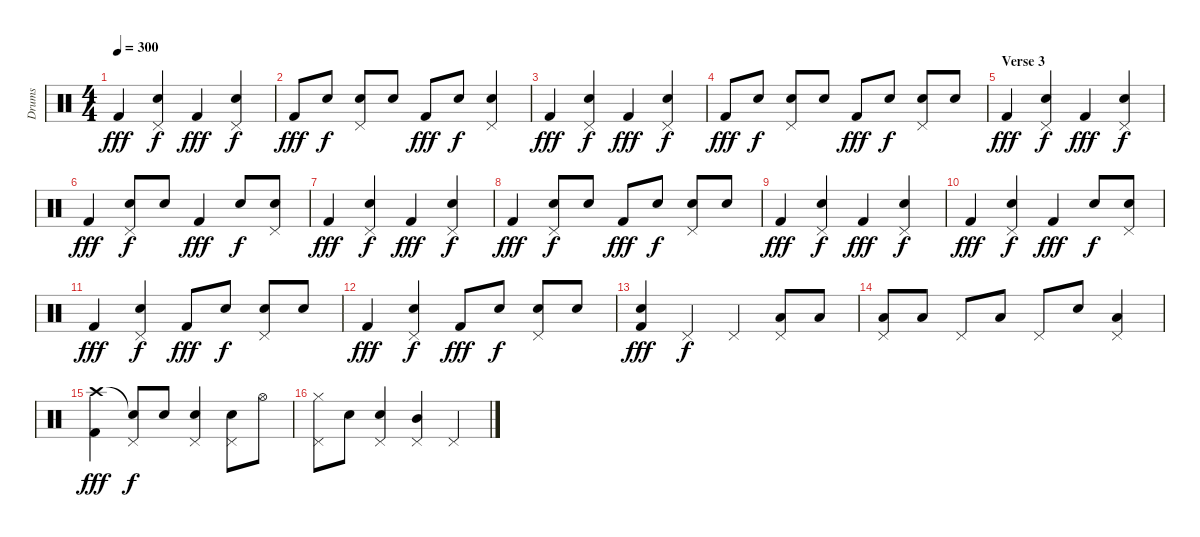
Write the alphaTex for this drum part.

\track ("Drums" "Drums") {instrument percussion}
\staff {score}
\articulation defaults
\ts (4 4)
\tempo 300
\clef neutral
\ks c "Kick (hit) 2".4{dy fff}
("Snare (hit) 2" "Pedal Hi-Hat (hit)").4{dy f} "Kick (hit) 2".4{dy fff} ("Snare (hit) 2" "Pedal Hi-Hat (hit)").4{dy f} |
"Kick (hit) 2".8{dy fff} "Snare (hit) 2".8{dy f} ("Snare (hit) 2" "Pedal Hi-Hat (hit)").8 "Snare (hit) 2".8 "Kick (hit) 2".8{dy fff} "Snare (hit) 2".8{dy f} ("Snare (hit) 2" "Pedal Hi-Hat (hit)").4 |
"Kick (hit) 2".4{dy fff} ("Snare (hit) 2" "Pedal Hi-Hat (hit)").4{dy f} "Kick (hit) 2".4{dy fff} ("Snare (hit) 2" "Pedal Hi-Hat (hit)").4{dy f} |
"Kick (hit) 2".8{dy fff} "Snare (hit) 2".8{dy f} ("Snare (hit) 2" "Pedal Hi-Hat (hit)").8 "Snare (hit) 2".8 "Kick (hit) 2".8{dy fff} "Snare (hit) 2".8{dy f} ("Snare (hit) 2" "Pedal Hi-Hat (hit)").8 "Snare (hit) 2".8 |
\section ("" "Verse 3")
"Kick (hit) 2".4{dy fff} ("Snare (hit) 2" "Pedal Hi-Hat (hit)").4{dy f} "Kick (hit) 2".4{dy fff} ("Snare (hit) 2" "Pedal Hi-Hat (hit)").4{dy f} |
"Kick (hit) 2".4{dy fff} ("Snare (hit) 2" "Pedal Hi-Hat (hit)").8{dy f} "Snare (hit) 2".8 "Kick (hit) 2".4{dy fff} "Snare (hit) 2".8{dy f} ("Snare (hit) 2" "Pedal Hi-Hat (hit)").8 |
"Kick (hit) 2".4{dy fff} ("Snare (hit) 2" "Pedal Hi-Hat (hit)").4{dy f} "Kick (hit) 2".4{dy fff} ("Snare (hit) 2" "Pedal Hi-Hat (hit)").4{dy f} |
"Kick (hit) 2".4{dy fff} ("Snare (hit) 2" "Pedal Hi-Hat (hit)").8{dy f} "Snare (hit) 2".8 "Kick (hit) 2".8{dy fff} "Snare (hit) 2".8{dy f} ("Snare (hit) 2" "Pedal Hi-Hat (hit)").8 "Snare (hit) 2".8 |
"Kick (hit) 2".4{dy fff} ("Snare (hit) 2" "Pedal Hi-Hat (hit)").4{dy f} "Kick (hit) 2".4{dy fff} ("Snare (hit) 2" "Pedal Hi-Hat (hit)").4{dy f} |
"Kick (hit) 2".4{dy fff} ("Snare (hit) 2" "Pedal Hi-Hat (hit)").4{dy f} "Kick (hit) 2".4{dy fff} "Snare (hit) 2".8{dy f} ("Snare (hit) 2" "Pedal Hi-Hat (hit)").8 |
"Kick (hit) 2".4{dy fff} ("Snare (hit) 2" "Pedal Hi-Hat (hit)").4{dy f} "Kick (hit) 2".8{dy fff} "Snare (hit) 2".8{dy f} ("Snare (hit) 2" "Pedal Hi-Hat (hit)").8 "Snare (hit) 2".8 |
"Kick (hit) 2".4{dy fff} ("Snare (hit) 2" "Pedal Hi-Hat (hit)").4{dy f} "Kick (hit) 2".8{dy fff} "Snare (hit) 2".8{dy f} ("Snare (hit) 2" "Pedal Hi-Hat (hit)").8 "Snare (hit) 2".8 |
("Snare (hit) 2" "Kick (hit) 2").4{dy fff} "Pedal Hi-Hat (hit)".4{dy f} "Pedal Hi-Hat (hit)".4 ("Low Tom (hit)" "Pedal Hi-Hat (hit)").8 "Low Tom (hit)".8 |
("Low Tom (hit)" "Pedal Hi-Hat (hit)").8 "Low Tom (hit)".8 "Pedal Hi-Hat (hit)".8 "Low Tom (hit)".8 "Pedal Hi-Hat (hit)".8 "Snare (hit) 2".8 ("Low Tom (hit)" "Pedal Hi-Hat (hit)").4 |
("Crash high (hit)" "Kick (hit) 2").4{dy fff} ("Snare (hit)"{t} "Pedal Hi-Hat (hit)").8{dy f} "Snare (hit) 2".8 ("Snare (hit) 2" "Pedal Hi-Hat (hit)").4 ("Snare (hit) 2" "Pedal Hi-Hat (hit)").8 "Hi-Hat (open)".8 |
("Hi-Hat (closed)" "Pedal Hi-Hat (hit)").8 "Snare (hit) 2".8 ("Snare (hit) 2" "Pedal Hi-Hat (hit)").4 ("Mid Tom (hit)" "Pedal Hi-Hat (hit)").4 "Pedal Hi-Hat (hit)".4
